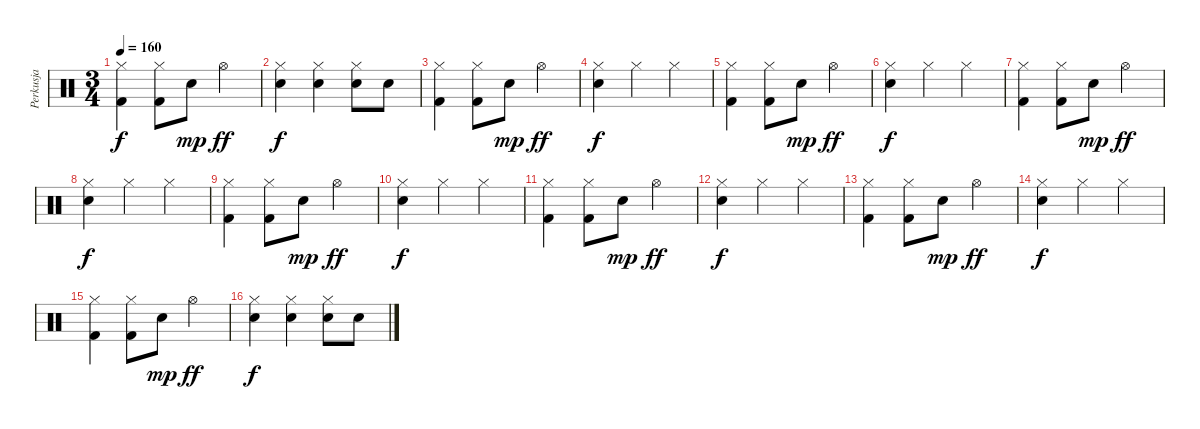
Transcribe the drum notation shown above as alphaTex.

\track ("Perkusja" "Perkusja") {instrument percussion}
\staff {score}
\articulation defaults
\ts (3 4)
\tempo 160
\clef neutral
\ks c
("Hi-Hat (closed)" "Kick (hit) 2").4{dy f} ("Hi-Hat (closed)" "Kick (hit) 2").8 "Snare (hit) 2".8{dy mp} "Hi-Hat (open)".4{dy ff} |
("Hi-Hat (closed)" "Snare (hit) 2").4{dy f} ("Hi-Hat (closed)" "Snare (hit) 2").4 ("Hi-Hat (closed)" "Snare (hit) 2").8 "Snare (hit) 2".8 |
("Hi-Hat (closed)" "Kick (hit) 2").4 ("Hi-Hat (closed)" "Kick (hit) 2").8 "Snare (hit) 2".8{dy mp} "Hi-Hat (open)".4{dy ff} |
("Hi-Hat (closed)" "Snare (hit) 2").4{dy f} "Hi-Hat (closed)".4 "Hi-Hat (closed)".4 |
("Hi-Hat (closed)" "Kick (hit) 2").4 ("Hi-Hat (closed)" "Kick (hit) 2").8 "Snare (hit) 2".8{dy mp} "Hi-Hat (open)".4{dy ff} |
("Hi-Hat (closed)" "Snare (hit) 2").4{dy f} "Hi-Hat (closed)".4 "Hi-Hat (closed)".4 |
("Hi-Hat (closed)" "Kick (hit) 2").4 ("Hi-Hat (closed)" "Kick (hit) 2").8 "Snare (hit) 2".8{dy mp} "Hi-Hat (open)".4{dy ff} |
("Hi-Hat (closed)" "Snare (hit) 2").4{dy f} "Hi-Hat (closed)".4 "Hi-Hat (closed)".4 |
("Hi-Hat (closed)" "Kick (hit) 2").4 ("Hi-Hat (closed)" "Kick (hit) 2").8 "Snare (hit) 2".8{dy mp} "Hi-Hat (open)".4{dy ff} |
("Hi-Hat (closed)" "Snare (hit) 2").4{dy f} "Hi-Hat (closed)".4 "Hi-Hat (closed)".4 |
("Hi-Hat (closed)" "Kick (hit) 2").4 ("Hi-Hat (closed)" "Kick (hit) 2").8 "Snare (hit) 2".8{dy mp} "Hi-Hat (open)".4{dy ff} |
("Hi-Hat (closed)" "Snare (hit) 2").4{dy f} "Hi-Hat (closed)".4 "Hi-Hat (closed)".4 |
("Hi-Hat (closed)" "Kick (hit) 2").4 ("Hi-Hat (closed)" "Kick (hit) 2").8 "Snare (hit) 2".8{dy mp} "Hi-Hat (open)".4{dy ff} |
("Hi-Hat (closed)" "Snare (hit) 2").4{dy f} "Hi-Hat (closed)".4 "Hi-Hat (closed)".4 |
("Hi-Hat (closed)" "Kick (hit) 2").4 ("Hi-Hat (closed)" "Kick (hit) 2").8 "Snare (hit) 2".8{dy mp} "Hi-Hat (open)".4{dy ff} |
("Hi-Hat (closed)" "Snare (hit) 2").4{dy f} ("Hi-Hat (closed)" "Snare (hit) 2").4 ("Hi-Hat (closed)" "Snare (hit) 2").8 "Snare (hit) 2".8
